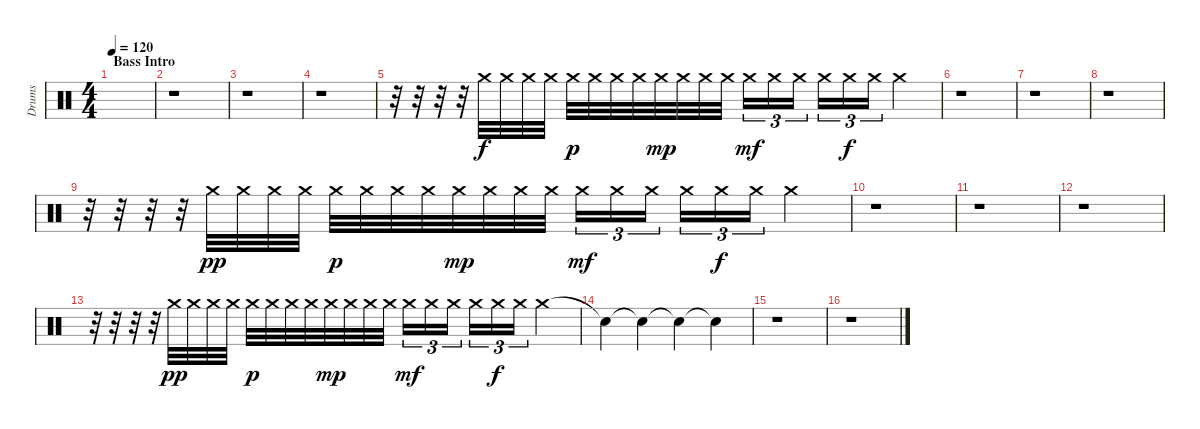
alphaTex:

\track ("Drums" "Drums") {instrument percussion}
\staff {score}
\articulation defaults
\ts (4 4)
\section ("" "Bass Intro")
\tempo 120
\clef neutral
\ks c
|
r.1 |
r.1 |
r.1 |
r.32 r.32 r.32 r.32 "Crash medium (hit)".32 "Crash medium (hit)".32 "Crash medium (hit)".32 "Crash medium (hit)".32 "Crash medium (hit)".32{dy p} "Crash medium (hit)".32 "Crash medium (hit)".32 "Crash medium (hit)".32 "Crash medium (hit)".32{dy mp} "Crash medium (hit)".32 "Crash medium (hit)".32 "Crash medium (hit)".32 "Crash medium (hit)".16{tu (3 2) dy mf} "Crash medium (hit)".16{tu (3 2)} "Crash medium (hit)".16{tu (3 2)} "Crash medium (hit)".16{tu (3 2)} "Crash medium (hit)".16{tu (3 2) dy f} "Crash medium (hit)".16{tu (3 2)} "Crash medium (hit)".4 |
r.1 |
r.1 |
r.1 |
r.32 r.32 r.32 r.32 "Crash medium (hit)".32{dy pp} "Crash medium (hit)".32 "Crash medium (hit)".32 "Crash medium (hit)".32 "Crash medium (hit)".32{dy p} "Crash medium (hit)".32 "Crash medium (hit)".32 "Crash medium (hit)".32 "Crash medium (hit)".32{dy mp} "Crash medium (hit)".32 "Crash medium (hit)".32 "Crash medium (hit)".32 "Crash medium (hit)".16{tu (3 2) dy mf} "Crash medium (hit)".16{tu (3 2)} "Crash medium (hit)".16{tu (3 2)} "Crash medium (hit)".16{tu (3 2)} "Crash medium (hit)".16{tu (3 2) dy f} "Crash medium (hit)".16{tu (3 2)} "Crash medium (hit)".4 |
r.1 |
r.1 |
r.1 |
r.32 r.32 r.32 r.32 "Crash medium (hit)".32{dy pp} "Crash medium (hit)".32 "Crash medium (hit)".32 "Crash medium (hit)".32 "Crash medium (hit)".32{dy p} "Crash medium (hit)".32 "Crash medium (hit)".32 "Crash medium (hit)".32 "Crash medium (hit)".32{dy mp} "Crash medium (hit)".32 "Crash medium (hit)".32 "Crash medium (hit)".32 "Crash medium (hit)".16{tu (3 2) dy mf} "Crash medium (hit)".16{tu (3 2)} "Crash medium (hit)".16{tu (3 2)} "Crash medium (hit)".16{tu (3 2)} "Crash medium (hit)".16{tu (3 2) dy f} "Crash medium (hit)".16{tu (3 2)} "Crash medium (hit)".4 |
"Snare (hit)"{t}.4 "Snare (hit)"{t}.4 "Snare (hit)"{t}.4 "Snare (hit)"{t}.4 |
r.1 |
r.1
